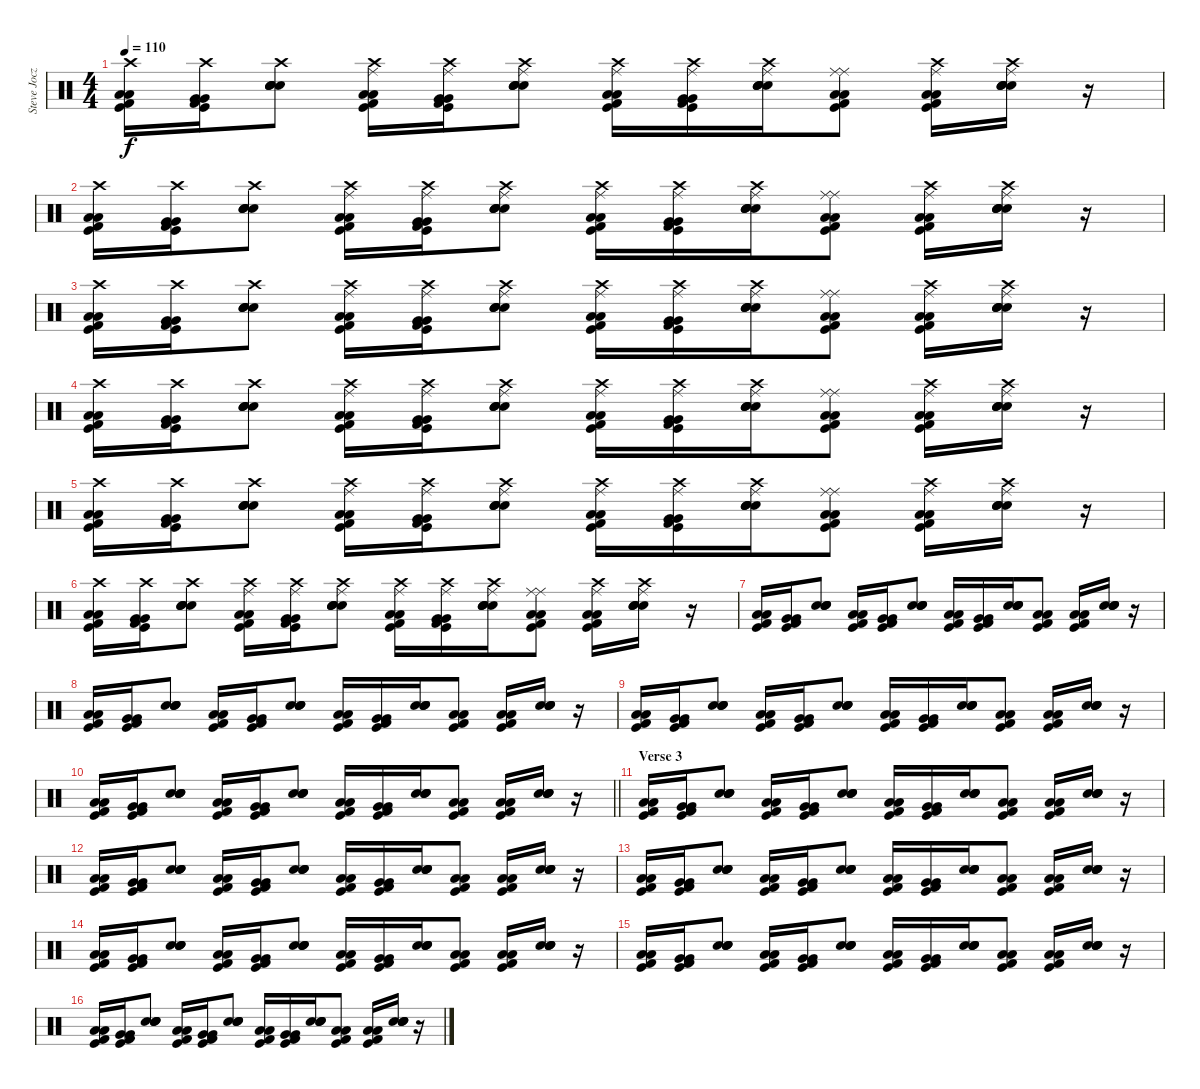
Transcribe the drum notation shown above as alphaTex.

\track ("Steve Jocz" "Steve Jocz") {instrument percussion}
\staff {score}
\articulation defaults
\ts (4 4)
\tempo 110
\clef neutral
\ks c
("Low Floor Tom (hit)" "Crash high (hit)" "Low Floor Tom (hit)" "Kick (hit)" "Kick (hit) 2").16{dy f} ("Very Low Tom (hit)" "Crash high (hit)" "Very Low Tom (hit)" "Kick (hit)" "Kick (hit) 2").16 ("Snare (hit) 2" "Crash high (hit)" "Snare (hit) 2" "Electric Snare (hit)" "Electric Snare (hit)").8 ("Low Floor Tom (hit)" "Ride (middle)" "Low Floor Tom (hit)" "Kick (hit)" "Crash high (hit)" "Kick (hit) 2").16 ("Very Low Tom (hit)" "Ride (middle)" "Very Low Tom (hit)" "Kick (hit)" "Crash high (hit)" "Kick (hit) 2").16 ("Snare (hit) 2" "Ride (middle)" "Snare (hit) 2" "Electric Snare (hit)" "Crash high (hit)" "Electric Snare (hit)").8 ("Low Floor Tom (hit)" "Ride (middle)" "Low Floor Tom (hit)" "Kick (hit)" "Crash high (hit)" "Kick (hit) 2").16 ("Very Low Tom (hit)" "Ride (middle)" "Very Low Tom (hit)" "Kick (hit)" "Crash high (hit)" "Kick (hit) 2").16 ("Snare (hit) 2" "Ride (middle)" "Snare (hit) 2" "Electric Snare (hit)" "Crash high (hit)" "Electric Snare (hit)").16 ("Low Floor Tom (hit)" "Ride (middle)" "Low Floor Tom (hit)" "Kick (hit)" "Ride (middle)" "Kick (hit) 2").8 ("Low Floor Tom (hit)" "Ride (middle)" "Low Floor Tom (hit)" "Kick (hit)" "Crash high (hit)" "Kick (hit) 2").16 ("Snare (hit) 2" "Ride (middle)" "Snare (hit) 2" "Electric Snare (hit)" "Crash high (hit)" "Electric Snare (hit)").16 r.16 |
("Low Floor Tom (hit)" "Crash high (hit)" "Low Floor Tom (hit)" "Kick (hit)" "Kick (hit) 2").16 ("Very Low Tom (hit)" "Crash high (hit)" "Very Low Tom (hit)" "Kick (hit)" "Kick (hit) 2").16 ("Snare (hit) 2" "Crash high (hit)" "Snare (hit) 2" "Electric Snare (hit)" "Electric Snare (hit)").8 ("Low Floor Tom (hit)" "Ride (middle)" "Low Floor Tom (hit)" "Kick (hit)" "Crash high (hit)" "Kick (hit) 2").16 ("Very Low Tom (hit)" "Ride (middle)" "Very Low Tom (hit)" "Kick (hit)" "Crash high (hit)" "Kick (hit) 2").16 ("Snare (hit) 2" "Ride (middle)" "Snare (hit) 2" "Electric Snare (hit)" "Crash high (hit)" "Electric Snare (hit)").8 ("Low Floor Tom (hit)" "Ride (middle)" "Low Floor Tom (hit)" "Kick (hit)" "Crash high (hit)" "Kick (hit) 2").16 ("Very Low Tom (hit)" "Ride (middle)" "Very Low Tom (hit)" "Kick (hit)" "Crash high (hit)" "Kick (hit) 2").16 ("Snare (hit) 2" "Ride (middle)" "Snare (hit) 2" "Electric Snare (hit)" "Crash high (hit)" "Electric Snare (hit)").16 ("Low Floor Tom (hit)" "Ride (middle)" "Low Floor Tom (hit)" "Kick (hit)" "Ride (middle)" "Kick (hit) 2").8 ("Low Floor Tom (hit)" "Ride (middle)" "Low Floor Tom (hit)" "Kick (hit)" "Crash high (hit)" "Kick (hit) 2").16 ("Snare (hit) 2" "Ride (middle)" "Snare (hit) 2" "Electric Snare (hit)" "Crash high (hit)" "Electric Snare (hit)").16 r.16 |
("Low Floor Tom (hit)" "Crash high (hit)" "Low Floor Tom (hit)" "Kick (hit)" "Kick (hit) 2").16 ("Very Low Tom (hit)" "Crash high (hit)" "Very Low Tom (hit)" "Kick (hit)" "Kick (hit) 2").16 ("Snare (hit) 2" "Crash high (hit)" "Snare (hit) 2" "Electric Snare (hit)" "Electric Snare (hit)").8 ("Low Floor Tom (hit)" "Ride (middle)" "Low Floor Tom (hit)" "Kick (hit)" "Crash high (hit)" "Kick (hit) 2").16 ("Very Low Tom (hit)" "Ride (middle)" "Very Low Tom (hit)" "Kick (hit)" "Crash high (hit)" "Kick (hit) 2").16 ("Snare (hit) 2" "Ride (middle)" "Snare (hit) 2" "Electric Snare (hit)" "Crash high (hit)" "Electric Snare (hit)").8 ("Low Floor Tom (hit)" "Ride (middle)" "Low Floor Tom (hit)" "Kick (hit)" "Crash high (hit)" "Kick (hit) 2").16 ("Very Low Tom (hit)" "Ride (middle)" "Very Low Tom (hit)" "Kick (hit)" "Crash high (hit)" "Kick (hit) 2").16 ("Snare (hit) 2" "Ride (middle)" "Snare (hit) 2" "Electric Snare (hit)" "Crash high (hit)" "Electric Snare (hit)").16 ("Low Floor Tom (hit)" "Ride (middle)" "Low Floor Tom (hit)" "Kick (hit)" "Ride (middle)" "Kick (hit) 2").8 ("Low Floor Tom (hit)" "Ride (middle)" "Low Floor Tom (hit)" "Kick (hit)" "Crash high (hit)" "Kick (hit) 2").16 ("Snare (hit) 2" "Ride (middle)" "Snare (hit) 2" "Electric Snare (hit)" "Crash high (hit)" "Electric Snare (hit)").16 r.16 |
("Low Floor Tom (hit)" "Crash high (hit)" "Low Floor Tom (hit)" "Kick (hit)" "Kick (hit) 2").16 ("Very Low Tom (hit)" "Crash high (hit)" "Very Low Tom (hit)" "Kick (hit)" "Kick (hit) 2").16 ("Snare (hit) 2" "Crash high (hit)" "Snare (hit) 2" "Electric Snare (hit)" "Electric Snare (hit)").8 ("Low Floor Tom (hit)" "Ride (middle)" "Low Floor Tom (hit)" "Kick (hit)" "Crash high (hit)" "Kick (hit) 2").16 ("Very Low Tom (hit)" "Ride (middle)" "Very Low Tom (hit)" "Kick (hit)" "Crash high (hit)" "Kick (hit) 2").16 ("Snare (hit) 2" "Ride (middle)" "Snare (hit) 2" "Electric Snare (hit)" "Crash high (hit)" "Electric Snare (hit)").8 ("Low Floor Tom (hit)" "Ride (middle)" "Low Floor Tom (hit)" "Kick (hit)" "Crash high (hit)" "Kick (hit) 2").16 ("Very Low Tom (hit)" "Ride (middle)" "Very Low Tom (hit)" "Kick (hit)" "Crash high (hit)" "Kick (hit) 2").16 ("Snare (hit) 2" "Ride (middle)" "Snare (hit) 2" "Electric Snare (hit)" "Crash high (hit)" "Electric Snare (hit)").16 ("Low Floor Tom (hit)" "Ride (middle)" "Low Floor Tom (hit)" "Kick (hit)" "Ride (middle)" "Kick (hit) 2").8 ("Low Floor Tom (hit)" "Ride (middle)" "Low Floor Tom (hit)" "Kick (hit)" "Crash high (hit)" "Kick (hit) 2").16 ("Snare (hit) 2" "Ride (middle)" "Snare (hit) 2" "Electric Snare (hit)" "Crash high (hit)" "Electric Snare (hit)").16 r.16 |
("Low Floor Tom (hit)" "Crash high (hit)" "Low Floor Tom (hit)" "Kick (hit)" "Kick (hit) 2").16 ("Very Low Tom (hit)" "Crash high (hit)" "Very Low Tom (hit)" "Kick (hit)" "Kick (hit) 2").16 ("Snare (hit) 2" "Crash high (hit)" "Snare (hit) 2" "Electric Snare (hit)" "Electric Snare (hit)").8 ("Low Floor Tom (hit)" "Ride (middle)" "Low Floor Tom (hit)" "Kick (hit)" "Crash high (hit)" "Kick (hit) 2").16 ("Very Low Tom (hit)" "Ride (middle)" "Very Low Tom (hit)" "Kick (hit)" "Crash high (hit)" "Kick (hit) 2").16 ("Snare (hit) 2" "Ride (middle)" "Snare (hit) 2" "Electric Snare (hit)" "Crash high (hit)" "Electric Snare (hit)").8 ("Low Floor Tom (hit)" "Ride (middle)" "Low Floor Tom (hit)" "Kick (hit)" "Crash high (hit)" "Kick (hit) 2").16 ("Very Low Tom (hit)" "Ride (middle)" "Very Low Tom (hit)" "Kick (hit)" "Crash high (hit)" "Kick (hit) 2").16 ("Snare (hit) 2" "Ride (middle)" "Snare (hit) 2" "Electric Snare (hit)" "Crash high (hit)" "Electric Snare (hit)").16 ("Low Floor Tom (hit)" "Ride (middle)" "Low Floor Tom (hit)" "Kick (hit)" "Ride (middle)" "Kick (hit) 2").8 ("Low Floor Tom (hit)" "Ride (middle)" "Low Floor Tom (hit)" "Kick (hit)" "Crash high (hit)" "Kick (hit) 2").16 ("Snare (hit) 2" "Ride (middle)" "Snare (hit) 2" "Electric Snare (hit)" "Crash high (hit)" "Electric Snare (hit)").16 r.16 |
("Low Floor Tom (hit)" "Crash high (hit)" "Low Floor Tom (hit)" "Kick (hit)" "Kick (hit) 2").16 ("Very Low Tom (hit)" "Crash high (hit)" "Very Low Tom (hit)" "Kick (hit)" "Kick (hit) 2").16 ("Snare (hit) 2" "Crash high (hit)" "Snare (hit) 2" "Electric Snare (hit)" "Electric Snare (hit)").8 ("Low Floor Tom (hit)" "Ride (middle)" "Low Floor Tom (hit)" "Kick (hit)" "Crash high (hit)" "Kick (hit) 2").16 ("Very Low Tom (hit)" "Ride (middle)" "Very Low Tom (hit)" "Kick (hit)" "Crash high (hit)" "Kick (hit) 2").16 ("Snare (hit) 2" "Ride (middle)" "Snare (hit) 2" "Electric Snare (hit)" "Crash high (hit)" "Electric Snare (hit)").8 ("Low Floor Tom (hit)" "Ride (middle)" "Low Floor Tom (hit)" "Kick (hit)" "Crash high (hit)" "Kick (hit) 2").16 ("Very Low Tom (hit)" "Ride (middle)" "Very Low Tom (hit)" "Kick (hit)" "Crash high (hit)" "Kick (hit) 2").16 ("Snare (hit) 2" "Ride (middle)" "Snare (hit) 2" "Electric Snare (hit)" "Crash high (hit)" "Electric Snare (hit)").16 ("Low Floor Tom (hit)" "Ride (middle)" "Low Floor Tom (hit)" "Kick (hit)" "Ride (middle)" "Kick (hit) 2").8 ("Low Floor Tom (hit)" "Ride (middle)" "Low Floor Tom (hit)" "Kick (hit)" "Crash high (hit)" "Kick (hit) 2").16 ("Snare (hit) 2" "Ride (middle)" "Snare (hit) 2" "Electric Snare (hit)" "Crash high (hit)" "Electric Snare (hit)").16 r.16 |
("Low Floor Tom (hit)" "Low Floor Tom (hit)" "Kick (hit)" "Kick (hit) 2").16 ("Very Low Tom (hit)" "Very Low Tom (hit)" "Kick (hit)" "Kick (hit) 2").16 ("Snare (hit) 2" "Snare (hit) 2" "Electric Snare (hit)" "Electric Snare (hit)").8 ("Low Floor Tom (hit)" "Low Floor Tom (hit)" "Kick (hit)" "Kick (hit) 2").16 ("Very Low Tom (hit)" "Very Low Tom (hit)" "Kick (hit)" "Kick (hit) 2").16 ("Snare (hit) 2" "Snare (hit) 2" "Electric Snare (hit)" "Electric Snare (hit)").8 ("Low Floor Tom (hit)" "Low Floor Tom (hit)" "Kick (hit)" "Kick (hit) 2").16 ("Very Low Tom (hit)" "Very Low Tom (hit)" "Kick (hit)" "Kick (hit) 2").16 ("Snare (hit) 2" "Snare (hit) 2" "Electric Snare (hit)" "Electric Snare (hit)").16 ("Low Floor Tom (hit)" "Low Floor Tom (hit)" "Kick (hit)" "Kick (hit) 2").8 ("Low Floor Tom (hit)" "Low Floor Tom (hit)" "Kick (hit)" "Kick (hit) 2").16 ("Snare (hit) 2" "Snare (hit) 2" "Electric Snare (hit)" "Electric Snare (hit)").16 r.16 |
("Low Floor Tom (hit)" "Low Floor Tom (hit)" "Kick (hit)" "Kick (hit) 2").16 ("Very Low Tom (hit)" "Very Low Tom (hit)" "Kick (hit)" "Kick (hit) 2").16 ("Snare (hit) 2" "Snare (hit) 2" "Electric Snare (hit)" "Electric Snare (hit)").8 ("Low Floor Tom (hit)" "Low Floor Tom (hit)" "Kick (hit)" "Kick (hit) 2").16 ("Very Low Tom (hit)" "Very Low Tom (hit)" "Kick (hit)" "Kick (hit) 2").16 ("Snare (hit) 2" "Snare (hit) 2" "Electric Snare (hit)" "Electric Snare (hit)").8 ("Low Floor Tom (hit)" "Low Floor Tom (hit)" "Kick (hit)" "Kick (hit) 2").16 ("Very Low Tom (hit)" "Very Low Tom (hit)" "Kick (hit)" "Kick (hit) 2").16 ("Snare (hit) 2" "Snare (hit) 2" "Electric Snare (hit)" "Electric Snare (hit)").16 ("Low Floor Tom (hit)" "Low Floor Tom (hit)" "Kick (hit)" "Kick (hit) 2").8 ("Low Floor Tom (hit)" "Low Floor Tom (hit)" "Kick (hit)" "Kick (hit) 2").16 ("Snare (hit) 2" "Snare (hit) 2" "Electric Snare (hit)" "Electric Snare (hit)").16 r.16 |
("Low Floor Tom (hit)" "Low Floor Tom (hit)" "Kick (hit)" "Kick (hit) 2").16 ("Very Low Tom (hit)" "Very Low Tom (hit)" "Kick (hit)" "Kick (hit) 2").16 ("Snare (hit) 2" "Snare (hit) 2" "Electric Snare (hit)" "Electric Snare (hit)").8 ("Low Floor Tom (hit)" "Low Floor Tom (hit)" "Kick (hit)" "Kick (hit) 2").16 ("Very Low Tom (hit)" "Very Low Tom (hit)" "Kick (hit)" "Kick (hit) 2").16 ("Snare (hit) 2" "Snare (hit) 2" "Electric Snare (hit)" "Electric Snare (hit)").8 ("Low Floor Tom (hit)" "Low Floor Tom (hit)" "Kick (hit)" "Kick (hit) 2").16 ("Very Low Tom (hit)" "Very Low Tom (hit)" "Kick (hit)" "Kick (hit) 2").16 ("Snare (hit) 2" "Snare (hit) 2" "Electric Snare (hit)" "Electric Snare (hit)").16 ("Low Floor Tom (hit)" "Low Floor Tom (hit)" "Kick (hit)" "Kick (hit) 2").8 ("Low Floor Tom (hit)" "Low Floor Tom (hit)" "Kick (hit)" "Kick (hit) 2").16 ("Snare (hit) 2" "Snare (hit) 2" "Electric Snare (hit)" "Electric Snare (hit)").16 r.16 |
\barLineRight lightlight
("Low Floor Tom (hit)" "Low Floor Tom (hit)" "Kick (hit)" "Kick (hit) 2").16 ("Very Low Tom (hit)" "Very Low Tom (hit)" "Kick (hit)" "Kick (hit) 2").16 ("Snare (hit) 2" "Snare (hit) 2" "Electric Snare (hit)" "Electric Snare (hit)").8 ("Low Floor Tom (hit)" "Low Floor Tom (hit)" "Kick (hit)" "Kick (hit) 2").16 ("Very Low Tom (hit)" "Very Low Tom (hit)" "Kick (hit)" "Kick (hit) 2").16 ("Snare (hit) 2" "Snare (hit) 2" "Electric Snare (hit)" "Electric Snare (hit)").8 ("Low Floor Tom (hit)" "Low Floor Tom (hit)" "Kick (hit)" "Kick (hit) 2").16 ("Very Low Tom (hit)" "Very Low Tom (hit)" "Kick (hit)" "Kick (hit) 2").16 ("Snare (hit) 2" "Snare (hit) 2" "Electric Snare (hit)" "Electric Snare (hit)").16 ("Low Floor Tom (hit)" "Low Floor Tom (hit)" "Kick (hit)" "Kick (hit) 2").8 ("Low Floor Tom (hit)" "Low Floor Tom (hit)" "Kick (hit)" "Kick (hit) 2").16 ("Snare (hit) 2" "Snare (hit) 2" "Electric Snare (hit)" "Electric Snare (hit)").16 r.16 |
\section ("" "Verse 3")
("Low Floor Tom (hit)" "Low Floor Tom (hit)" "Kick (hit)" "Kick (hit) 2").16 ("Very Low Tom (hit)" "Very Low Tom (hit)" "Kick (hit)" "Kick (hit) 2").16 ("Snare (hit) 2" "Snare (hit) 2" "Electric Snare (hit)" "Electric Snare (hit)").8 ("Low Floor Tom (hit)" "Low Floor Tom (hit)" "Kick (hit)" "Kick (hit) 2").16 ("Very Low Tom (hit)" "Very Low Tom (hit)" "Kick (hit)" "Kick (hit) 2").16 ("Snare (hit) 2" "Snare (hit) 2" "Electric Snare (hit)" "Electric Snare (hit)").8 ("Low Floor Tom (hit)" "Low Floor Tom (hit)" "Kick (hit)" "Kick (hit) 2").16 ("Very Low Tom (hit)" "Very Low Tom (hit)" "Kick (hit)" "Kick (hit) 2").16 ("Snare (hit) 2" "Snare (hit) 2" "Electric Snare (hit)" "Electric Snare (hit)").16 ("Low Floor Tom (hit)" "Low Floor Tom (hit)" "Kick (hit)" "Kick (hit) 2").8 ("Low Floor Tom (hit)" "Low Floor Tom (hit)" "Kick (hit)" "Kick (hit) 2").16 ("Snare (hit) 2" "Snare (hit) 2" "Electric Snare (hit)" "Electric Snare (hit)").16 r.16 |
("Low Floor Tom (hit)" "Low Floor Tom (hit)" "Kick (hit)" "Kick (hit) 2").16 ("Very Low Tom (hit)" "Very Low Tom (hit)" "Kick (hit)" "Kick (hit) 2").16 ("Snare (hit) 2" "Snare (hit) 2" "Electric Snare (hit)" "Electric Snare (hit)").8 ("Low Floor Tom (hit)" "Low Floor Tom (hit)" "Kick (hit)" "Kick (hit) 2").16 ("Very Low Tom (hit)" "Very Low Tom (hit)" "Kick (hit)" "Kick (hit) 2").16 ("Snare (hit) 2" "Snare (hit) 2" "Electric Snare (hit)" "Electric Snare (hit)").8 ("Low Floor Tom (hit)" "Low Floor Tom (hit)" "Kick (hit)" "Kick (hit) 2").16 ("Very Low Tom (hit)" "Very Low Tom (hit)" "Kick (hit)" "Kick (hit) 2").16 ("Snare (hit) 2" "Snare (hit) 2" "Electric Snare (hit)" "Electric Snare (hit)").16 ("Low Floor Tom (hit)" "Low Floor Tom (hit)" "Kick (hit)" "Kick (hit) 2").8 ("Low Floor Tom (hit)" "Low Floor Tom (hit)" "Kick (hit)" "Kick (hit) 2").16 ("Snare (hit) 2" "Snare (hit) 2" "Electric Snare (hit)" "Electric Snare (hit)").16 r.16 |
("Low Floor Tom (hit)" "Low Floor Tom (hit)" "Kick (hit)" "Kick (hit) 2").16 ("Very Low Tom (hit)" "Very Low Tom (hit)" "Kick (hit)" "Kick (hit) 2").16 ("Snare (hit) 2" "Snare (hit) 2" "Electric Snare (hit)" "Electric Snare (hit)").8 ("Low Floor Tom (hit)" "Low Floor Tom (hit)" "Kick (hit)" "Kick (hit) 2").16 ("Very Low Tom (hit)" "Very Low Tom (hit)" "Kick (hit)" "Kick (hit) 2").16 ("Snare (hit) 2" "Snare (hit) 2" "Electric Snare (hit)" "Electric Snare (hit)").8 ("Low Floor Tom (hit)" "Low Floor Tom (hit)" "Kick (hit)" "Kick (hit) 2").16 ("Very Low Tom (hit)" "Very Low Tom (hit)" "Kick (hit)" "Kick (hit) 2").16 ("Snare (hit) 2" "Snare (hit) 2" "Electric Snare (hit)" "Electric Snare (hit)").16 ("Low Floor Tom (hit)" "Low Floor Tom (hit)" "Kick (hit)" "Kick (hit) 2").8 ("Low Floor Tom (hit)" "Low Floor Tom (hit)" "Kick (hit)" "Kick (hit) 2").16 ("Snare (hit) 2" "Snare (hit) 2" "Electric Snare (hit)" "Electric Snare (hit)").16 r.16 |
("Low Floor Tom (hit)" "Low Floor Tom (hit)" "Kick (hit)" "Kick (hit) 2").16 ("Very Low Tom (hit)" "Very Low Tom (hit)" "Kick (hit)" "Kick (hit) 2").16 ("Snare (hit) 2" "Snare (hit) 2" "Electric Snare (hit)" "Electric Snare (hit)").8 ("Low Floor Tom (hit)" "Low Floor Tom (hit)" "Kick (hit)" "Kick (hit) 2").16 ("Very Low Tom (hit)" "Very Low Tom (hit)" "Kick (hit)" "Kick (hit) 2").16 ("Snare (hit) 2" "Snare (hit) 2" "Electric Snare (hit)" "Electric Snare (hit)").8 ("Low Floor Tom (hit)" "Low Floor Tom (hit)" "Kick (hit)" "Kick (hit) 2").16 ("Very Low Tom (hit)" "Very Low Tom (hit)" "Kick (hit)" "Kick (hit) 2").16 ("Snare (hit) 2" "Snare (hit) 2" "Electric Snare (hit)" "Electric Snare (hit)").16 ("Low Floor Tom (hit)" "Low Floor Tom (hit)" "Kick (hit)" "Kick (hit) 2").8 ("Low Floor Tom (hit)" "Low Floor Tom (hit)" "Kick (hit)" "Kick (hit) 2").16 ("Snare (hit) 2" "Snare (hit) 2" "Electric Snare (hit)" "Electric Snare (hit)").16 r.16 |
("Low Floor Tom (hit)" "Low Floor Tom (hit)" "Kick (hit)" "Kick (hit) 2").16 ("Very Low Tom (hit)" "Very Low Tom (hit)" "Kick (hit)" "Kick (hit) 2").16 ("Snare (hit) 2" "Snare (hit) 2" "Electric Snare (hit)" "Electric Snare (hit)").8 ("Low Floor Tom (hit)" "Low Floor Tom (hit)" "Kick (hit)" "Kick (hit) 2").16 ("Very Low Tom (hit)" "Very Low Tom (hit)" "Kick (hit)" "Kick (hit) 2").16 ("Snare (hit) 2" "Snare (hit) 2" "Electric Snare (hit)" "Electric Snare (hit)").8 ("Low Floor Tom (hit)" "Low Floor Tom (hit)" "Kick (hit)" "Kick (hit) 2").16 ("Very Low Tom (hit)" "Very Low Tom (hit)" "Kick (hit)" "Kick (hit) 2").16 ("Snare (hit) 2" "Snare (hit) 2" "Electric Snare (hit)" "Electric Snare (hit)").16 ("Low Floor Tom (hit)" "Low Floor Tom (hit)" "Kick (hit)" "Kick (hit) 2").8 ("Low Floor Tom (hit)" "Low Floor Tom (hit)" "Kick (hit)" "Kick (hit) 2").16 ("Snare (hit) 2" "Snare (hit) 2" "Electric Snare (hit)" "Electric Snare (hit)").16 r.16 |
("Low Floor Tom (hit)" "Low Floor Tom (hit)" "Kick (hit)" "Kick (hit) 2").16 ("Very Low Tom (hit)" "Very Low Tom (hit)" "Kick (hit)" "Kick (hit) 2").16 ("Snare (hit) 2" "Snare (hit) 2" "Electric Snare (hit)" "Electric Snare (hit)").8 ("Low Floor Tom (hit)" "Low Floor Tom (hit)" "Kick (hit)" "Kick (hit) 2").16 ("Very Low Tom (hit)" "Very Low Tom (hit)" "Kick (hit)" "Kick (hit) 2").16 ("Snare (hit) 2" "Snare (hit) 2" "Electric Snare (hit)" "Electric Snare (hit)").8 ("Low Floor Tom (hit)" "Low Floor Tom (hit)" "Kick (hit)" "Kick (hit) 2").16 ("Very Low Tom (hit)" "Very Low Tom (hit)" "Kick (hit)" "Kick (hit) 2").16 ("Snare (hit) 2" "Snare (hit) 2" "Electric Snare (hit)" "Electric Snare (hit)").16 ("Low Floor Tom (hit)" "Low Floor Tom (hit)" "Kick (hit)" "Kick (hit) 2").8 ("Low Floor Tom (hit)" "Low Floor Tom (hit)" "Kick (hit)" "Kick (hit) 2").16 ("Snare (hit) 2" "Snare (hit) 2" "Electric Snare (hit)" "Electric Snare (hit)").16 r.16
